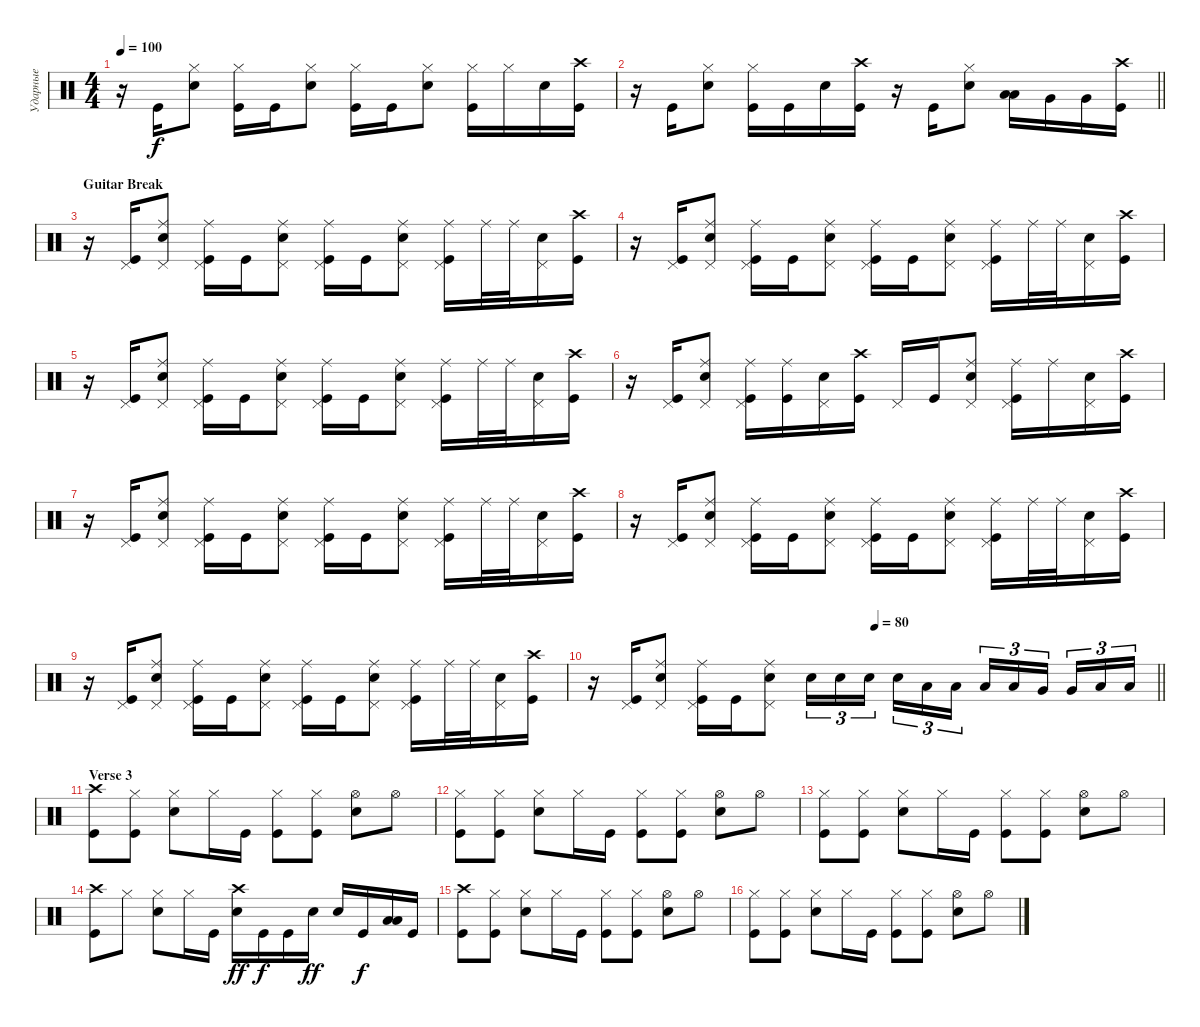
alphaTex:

\track ("Ударные" "Ударные") {instrument percussion}
\staff {score}
\articulation defaults
\ts (4 4)
\tempo 100
\clef neutral
\ks aminor
r.16{dy f} "Kick (hit)".16 ("Hi-Hat (closed)" "Snare (hit) 2").8 ("Hi-Hat (closed)" "Kick (hit)").16 "Kick (hit)".16 ("Snare (hit) 2" "Hi-Hat (closed)").8 ("Kick (hit)" "Hi-Hat (closed)").16 "Kick (hit)".16 ("Snare (hit) 2" "Hi-Hat (closed)").8 ("Kick (hit)" "Hi-Hat (closed)").16 "Hi-Hat (closed)".16 "Snare (hit) 2".16 ("Kick (hit)" "Crash high (hit)").16 |
\barLineRight lightlight
r.16 "Kick (hit)".16 ("Hi-Hat (closed)" "Snare (hit) 2").8 ("Hi-Hat (closed)" "Kick (hit)").16 "Kick (hit)".16 "Snare (hit) 2".16 ("Kick (hit)" "Crash high (hit)").16 r.16 "Kick (hit)".16 ("Snare (hit) 2" "Hi-Hat (closed)").8 ("Low Tom (hit)" "Low Tom (hit)").16{bd 240} "Very Low Tom (hit)".16 "Very Low Tom (hit)".16 ("Kick (hit)" "Crash high (hit)").16 |
\section ("" "Guitar Break")
r.16 ("Kick (hit)" "Pedal Hi-Hat (hit)").16 ("Ride (middle)" "Snare (hit) 2" "Pedal Hi-Hat (hit)").8 ("Ride (middle)" "Kick (hit)" "Pedal Hi-Hat (hit)").16 "Kick (hit)".16 ("Snare (hit) 2" "Ride (middle)" "Pedal Hi-Hat (hit)").8 ("Kick (hit)" "Ride (middle)" "Pedal Hi-Hat (hit)").16 "Kick (hit)".16 ("Snare (hit) 2" "Ride (middle)" "Pedal Hi-Hat (hit)").8 ("Kick (hit)" "Ride (middle)" "Pedal Hi-Hat (hit)").16 "Ride (middle)".32 "Ride (middle)".32 ("Snare (hit) 2" "Pedal Hi-Hat (hit)").16 ("Kick (hit)" "Crash high (hit)").16 |
r.16 ("Kick (hit)" "Pedal Hi-Hat (hit)").16 ("Ride (middle)" "Snare (hit) 2" "Pedal Hi-Hat (hit)").8 ("Ride (middle)" "Kick (hit)" "Pedal Hi-Hat (hit)").16 "Kick (hit)".16 ("Snare (hit) 2" "Ride (middle)" "Pedal Hi-Hat (hit)").8 ("Kick (hit)" "Ride (middle)" "Pedal Hi-Hat (hit)").16 "Kick (hit)".16 ("Snare (hit) 2" "Ride (middle)" "Pedal Hi-Hat (hit)").8 ("Kick (hit)" "Ride (middle)" "Pedal Hi-Hat (hit)").16 "Ride (middle)".32 "Ride (middle)".32 ("Snare (hit) 2" "Pedal Hi-Hat (hit)").16 ("Kick (hit)" "Crash high (hit)").16 |
r.16 ("Kick (hit)" "Pedal Hi-Hat (hit)").16 ("Ride (middle)" "Snare (hit) 2" "Pedal Hi-Hat (hit)").8 ("Ride (middle)" "Kick (hit)" "Pedal Hi-Hat (hit)").16 "Kick (hit)".16 ("Snare (hit) 2" "Ride (middle)" "Pedal Hi-Hat (hit)").8 ("Kick (hit)" "Ride (middle)" "Pedal Hi-Hat (hit)").16 "Kick (hit)".16 ("Snare (hit) 2" "Ride (middle)" "Pedal Hi-Hat (hit)").8 ("Kick (hit)" "Ride (middle)" "Pedal Hi-Hat (hit)").16 "Ride (middle)".32 "Ride (middle)".32 ("Snare (hit) 2" "Pedal Hi-Hat (hit)").16 ("Kick (hit)" "Crash high (hit)").16 |
r.16 ("Kick (hit)" "Pedal Hi-Hat (hit)").16 ("Ride (middle)" "Snare (hit) 2" "Pedal Hi-Hat (hit)").8 ("Ride (middle)" "Kick (hit)" "Pedal Hi-Hat (hit)").16 ("Kick (hit)" "Ride (middle)").16 ("Snare (hit) 2" "Pedal Hi-Hat (hit)").16 ("Kick (hit)" "Crash high (hit)").16 "Pedal Hi-Hat (hit)".16 "Kick (hit)".16 ("Snare (hit) 2" "Ride (middle)" "Pedal Hi-Hat (hit)").8 ("Kick (hit)" "Ride (middle)" "Pedal Hi-Hat (hit)").16 "Ride (middle)".16 ("Snare (hit) 2" "Pedal Hi-Hat (hit)").16 ("Kick (hit)" "Crash high (hit)").16 |
r.16 ("Kick (hit)" "Pedal Hi-Hat (hit)").16 ("Ride (middle)" "Snare (hit) 2" "Pedal Hi-Hat (hit)").8 ("Ride (middle)" "Kick (hit)" "Pedal Hi-Hat (hit)").16 "Kick (hit)".16 ("Snare (hit) 2" "Ride (middle)" "Pedal Hi-Hat (hit)").8 ("Kick (hit)" "Ride (middle)" "Pedal Hi-Hat (hit)").16 "Kick (hit)".16 ("Snare (hit) 2" "Ride (middle)" "Pedal Hi-Hat (hit)").8 ("Kick (hit)" "Ride (middle)" "Pedal Hi-Hat (hit)").16 "Ride (middle)".32 "Ride (middle)".32 ("Snare (hit) 2" "Pedal Hi-Hat (hit)").16 ("Kick (hit)" "Crash high (hit)").16 |
r.16 ("Kick (hit)" "Pedal Hi-Hat (hit)").16 ("Ride (middle)" "Snare (hit) 2" "Pedal Hi-Hat (hit)").8 ("Ride (middle)" "Kick (hit)" "Pedal Hi-Hat (hit)").16 "Kick (hit)".16 ("Snare (hit) 2" "Ride (middle)" "Pedal Hi-Hat (hit)").8 ("Kick (hit)" "Ride (middle)" "Pedal Hi-Hat (hit)").16 "Kick (hit)".16 ("Snare (hit) 2" "Ride (middle)" "Pedal Hi-Hat (hit)").8 ("Kick (hit)" "Ride (middle)" "Pedal Hi-Hat (hit)").16 "Ride (middle)".32 "Ride (middle)".32 ("Snare (hit) 2" "Pedal Hi-Hat (hit)").16 ("Kick (hit)" "Crash high (hit)").16 |
r.16 ("Kick (hit)" "Pedal Hi-Hat (hit)").16 ("Ride (middle)" "Snare (hit) 2" "Pedal Hi-Hat (hit)").8 ("Ride (middle)" "Kick (hit)" "Pedal Hi-Hat (hit)").16 "Kick (hit)".16 ("Snare (hit) 2" "Ride (middle)" "Pedal Hi-Hat (hit)").8 ("Kick (hit)" "Ride (middle)" "Pedal Hi-Hat (hit)").16 "Kick (hit)".16 ("Snare (hit) 2" "Ride (middle)" "Pedal Hi-Hat (hit)").8 ("Kick (hit)" "Ride (middle)" "Pedal Hi-Hat (hit)").16 "Ride (middle)".32 "Ride (middle)".32 ("Snare (hit) 2" "Pedal Hi-Hat (hit)").16 ("Kick (hit)" "Crash high (hit)").16 |
\tempo (80 0.5)
\barLineRight lightlight
r.16 ("Kick (hit)" "Pedal Hi-Hat (hit)").16 ("Ride (middle)" "Snare (hit) 2" "Pedal Hi-Hat (hit)").8 ("Ride (middle)" "Kick (hit)" "Pedal Hi-Hat (hit)").16 "Kick (hit)".16 ("Snare (hit) 2" "Ride (middle)" "Pedal Hi-Hat (hit)").8 "Snare (hit) 2".16{tu (3 2)} "Snare (hit) 2".16{tu (3 2)} "Snare (hit) 2".16{tu (3 2) beam splitsecondary} "Snare (hit) 2".16{tu (3 2)} "Low Tom (hit)".16{tu (3 2)} "Low Tom (hit)".16{tu (3 2)} "Low Tom (hit)".16{tu (3 2)} "Low Tom (hit)".16{tu (3 2)} "Very Low Tom (hit)".16{tu (3 2) beam splitsecondary} "Very Low Tom (hit)".16{tu (3 2)} "Low Floor Tom (hit)".16{tu (3 2)} "Low Floor Tom (hit)".16{tu (3 2)} |
\section ("" "Verse 3")
("Kick (hit)" "Crash high (hit)").8 ("Kick (hit)" "Hi-Hat (closed)").8 ("Hi-Hat (closed)" "Snare (hit) 2").8 "Hi-Hat (closed)".16 "Kick (hit)".16 ("Kick (hit)" "Hi-Hat (closed)").8 ("Kick (hit)" "Hi-Hat (closed)").8 ("Snare (hit) 2" "Hi-Hat (open)").8 "Hi-Hat (open)".8 |
("Kick (hit)" "Hi-Hat (closed)").8 ("Kick (hit)" "Hi-Hat (closed)").8 ("Hi-Hat (closed)" "Snare (hit) 2").8 "Hi-Hat (closed)".16 "Kick (hit)".16 ("Kick (hit)" "Hi-Hat (closed)").8 ("Kick (hit)" "Hi-Hat (closed)").8 ("Snare (hit) 2" "Hi-Hat (open)").8 "Hi-Hat (open)".8 |
("Kick (hit)" "Hi-Hat (closed)").8 ("Kick (hit)" "Hi-Hat (closed)").8 ("Hi-Hat (closed)" "Snare (hit) 2").8 "Hi-Hat (closed)".16 "Kick (hit)".16 ("Kick (hit)" "Hi-Hat (closed)").8 ("Kick (hit)" "Hi-Hat (closed)").8 ("Snare (hit) 2" "Hi-Hat (open)").8 "Hi-Hat (open)".8 |
("Kick (hit)" "Crash high (hit)").8 "Hi-Hat (closed)".8 ("Hi-Hat (closed)" "Snare (hit) 2").8 "Hi-Hat (closed)".16 "Kick (hit)".16 ("Crash high (hit)" "Snare (hit) 2").16{bd 480 dy ff} "Kick (hit)".16{dy f} "Kick (hit)".16 "Snare (hit) 2".16{dy ff} "Snare (hit) 2".16 "Kick (hit)".16{dy f} ("Low Tom (hit)" "Low Tom (hit)").16{bd 120} "Kick (hit)".16 |
("Kick (hit)" "Crash high (hit)").8 ("Kick (hit)" "Hi-Hat (closed)").8 ("Hi-Hat (closed)" "Snare (hit) 2").8 "Hi-Hat (closed)".16 "Kick (hit)".16 ("Kick (hit)" "Hi-Hat (closed)").8 ("Kick (hit)" "Hi-Hat (closed)").8 ("Snare (hit) 2" "Hi-Hat (open)").8 "Hi-Hat (open)".8 |
("Kick (hit)" "Hi-Hat (closed)").8 ("Kick (hit)" "Hi-Hat (closed)").8 ("Hi-Hat (closed)" "Snare (hit) 2").8 "Hi-Hat (closed)".16 "Kick (hit)".16 ("Kick (hit)" "Hi-Hat (closed)").8 ("Kick (hit)" "Hi-Hat (closed)").8 ("Snare (hit) 2" "Hi-Hat (open)").8 "Hi-Hat (open)".8
